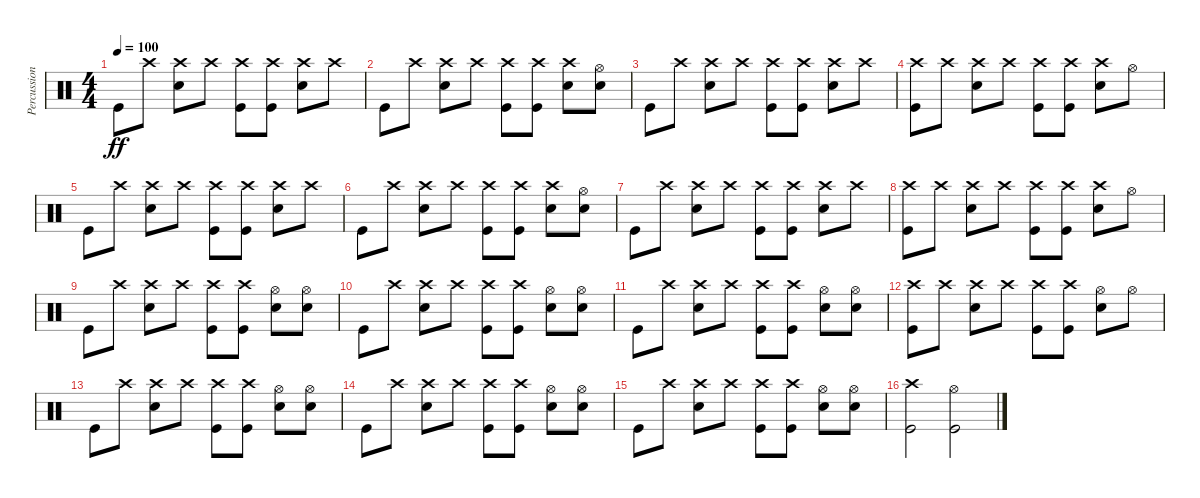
\track ("Percussion" "Percussion") {instrument percussion}
\staff {score}
\articulation defaults
\ts (4 4)
\tempo 100
\clef neutral
\ks c "Kick (hit)".8{dy ff} "Crash high (hit)".8
("Crash high (hit)" "Electric Snare (hit)").8 "Crash high (hit)".8 ("Crash high (hit)" "Kick (hit)").8 ("Crash high (hit)" "Kick (hit)").8 ("Crash high (hit)" "Electric Snare (hit)").8 "Crash high (hit)".8 |
"Kick (hit)".8 "Crash high (hit)".8 ("Crash high (hit)" "Electric Snare (hit)").8 "Crash high (hit)".8 ("Crash high (hit)" "Kick (hit)").8 ("Crash high (hit)" "Kick (hit)").8 ("Crash high (hit)" "Electric Snare (hit)").8 ("Hi-Hat (open)" "Electric Snare (hit)").8 |
"Kick (hit)".8 "Crash high (hit)".8 ("Crash high (hit)" "Electric Snare (hit)").8 "Crash high (hit)".8 ("Crash high (hit)" "Kick (hit)").8 ("Crash high (hit)" "Kick (hit)").8 ("Crash high (hit)" "Electric Snare (hit)").8 "Crash high (hit)".8 |
("Crash high (hit)" "Kick (hit)").8 "Crash high (hit)".8 ("Crash high (hit)" "Electric Snare (hit)").8 "Crash high (hit)".8 ("Crash high (hit)" "Kick (hit)").8 ("Crash high (hit)" "Kick (hit)").8 ("Crash high (hit)" "Electric Snare (hit)").8 "Hi-Hat (open)".8 |
"Kick (hit)".8 "Crash high (hit)".8 ("Crash high (hit)" "Electric Snare (hit)").8 "Crash high (hit)".8 ("Crash high (hit)" "Kick (hit)").8 ("Crash high (hit)" "Kick (hit)").8 ("Crash high (hit)" "Electric Snare (hit)").8 "Crash high (hit)".8 |
"Kick (hit)".8 "Crash high (hit)".8 ("Crash high (hit)" "Electric Snare (hit)").8 "Crash high (hit)".8 ("Crash high (hit)" "Kick (hit)").8 ("Crash high (hit)" "Kick (hit)").8 ("Crash high (hit)" "Electric Snare (hit)").8 ("Hi-Hat (open)" "Electric Snare (hit)").8 |
"Kick (hit)".8 "Crash high (hit)".8 ("Crash high (hit)" "Electric Snare (hit)").8 "Crash high (hit)".8 ("Crash high (hit)" "Kick (hit)").8 ("Crash high (hit)" "Kick (hit)").8 ("Crash high (hit)" "Electric Snare (hit)").8 "Crash high (hit)".8 |
("Crash high (hit)" "Kick (hit)").8 "Crash high (hit)".8 ("Crash high (hit)" "Electric Snare (hit)").8 "Crash high (hit)".8 ("Crash high (hit)" "Kick (hit)").8 ("Crash high (hit)" "Kick (hit)").8 ("Crash high (hit)" "Electric Snare (hit)").8 "Hi-Hat (open)".8 |
"Kick (hit)".8 "Crash high (hit)".8 ("Crash high (hit)" "Electric Snare (hit)").8 "Crash high (hit)".8 ("Crash high (hit)" "Kick (hit)").8 ("Crash high (hit)" "Kick (hit)").8 ("Hi-Hat (open)" "Electric Snare (hit)").8 ("Hi-Hat (open)" "Electric Snare (hit)").8 |
"Kick (hit)".8 "Crash high (hit)".8 ("Crash high (hit)" "Electric Snare (hit)").8 "Crash high (hit)".8 ("Crash high (hit)" "Kick (hit)").8 ("Crash high (hit)" "Kick (hit)").8 ("Hi-Hat (open)" "Electric Snare (hit)").8 ("Hi-Hat (open)" "Electric Snare (hit)").8 |
"Kick (hit)".8 "Crash high (hit)".8 ("Crash high (hit)" "Electric Snare (hit)").8 "Crash high (hit)".8 ("Crash high (hit)" "Kick (hit)").8 ("Crash high (hit)" "Kick (hit)").8 ("Hi-Hat (open)" "Electric Snare (hit)").8 ("Hi-Hat (open)" "Electric Snare (hit)").8 |
("Crash high (hit)" "Kick (hit)").8 "Crash high (hit)".8 ("Crash high (hit)" "Electric Snare (hit)").8 "Crash high (hit)".8 ("Crash high (hit)" "Kick (hit)").8 ("Crash high (hit)" "Kick (hit)").8 ("Hi-Hat (open)" "Electric Snare (hit)").8 "Hi-Hat (open)".8 |
"Kick (hit)".8 "Crash high (hit)".8 ("Crash high (hit)" "Electric Snare (hit)").8 "Crash high (hit)".8 ("Crash high (hit)" "Kick (hit)").8 ("Crash high (hit)" "Kick (hit)").8 ("Hi-Hat (open)" "Electric Snare (hit)").8 ("Hi-Hat (open)" "Electric Snare (hit)").8 |
"Kick (hit)".8 "Crash high (hit)".8 ("Crash high (hit)" "Electric Snare (hit)").8 "Crash high (hit)".8 ("Crash high (hit)" "Kick (hit)").8 ("Crash high (hit)" "Kick (hit)").8 ("Hi-Hat (open)" "Electric Snare (hit)").8 ("Hi-Hat (open)" "Electric Snare (hit)").8 |
"Kick (hit)".8 "Crash high (hit)".8 ("Crash high (hit)" "Electric Snare (hit)").8 "Crash high (hit)".8 ("Crash high (hit)" "Kick (hit)").8 ("Crash high (hit)" "Kick (hit)").8 ("Hi-Hat (open)" "Electric Snare (hit)").8 ("Hi-Hat (open)" "Electric Snare (hit)").8 |
("Crash high (hit)" "Kick (hit)").2 ("Hi-Hat (open)" "Kick (hit)").2
